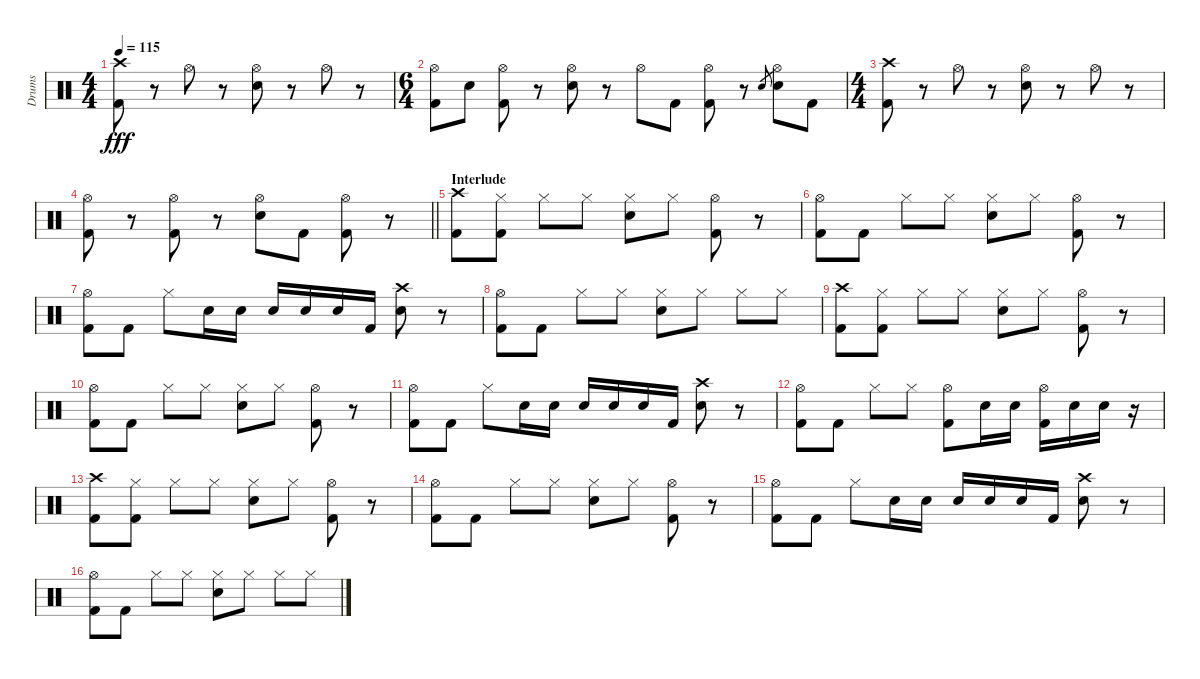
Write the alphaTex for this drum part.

\track ("Drums" "Drums") {instrument percussion}
\staff {score}
\articulation defaults
\ts (4 4)
\tempo 115
\clef neutral
\ks c
("Crash high (hit)" "Kick (hit) 2").8{dy fff} r.8 "Hi-Hat (open)".8 r.8 ("Hi-Hat (open)" "Electric Snare (hit)").8 r.8 "Hi-Hat (open)".8 r.8 |
\ts (6 4)
("Hi-Hat (open)" "Kick (hit) 2").8 "Electric Snare (hit)".8 ("Hi-Hat (open)" "Kick (hit) 2").8 r.8 ("Hi-Hat (open)" "Electric Snare (hit)").8 r.8 "Hi-Hat (open)".8 "Kick (hit) 2".8 ("Hi-Hat (open)" "Kick (hit) 2").8 r.8 "Electric Snare (hit)".8{gr} ("Hi-Hat (open)" "Electric Snare (hit)").8 "Kick (hit) 2".8 |
\ts (4 4)
("Crash high (hit)" "Kick (hit) 2").8 r.8 "Hi-Hat (open)".8 r.8 ("Hi-Hat (open)" "Electric Snare (hit)").8 r.8 "Hi-Hat (open)".8 r.8 |
\barLineRight lightlight
("Hi-Hat (open)" "Kick (hit) 2").8 r.8 ("Hi-Hat (open)" "Kick (hit) 2").8 r.8 ("Hi-Hat (open)" "Electric Snare (hit)").8 "Kick (hit) 2".8 ("Hi-Hat (open)" "Kick (hit) 2").8 r.8 |
\section ("" "Interlude")
("Crash high (hit)" "Kick (hit) 2").8 ("Hi-Hat (closed)" "Kick (hit) 2").8 "Hi-Hat (closed)".8 "Hi-Hat (closed)".8 ("Hi-Hat (closed)" "Electric Snare (hit)").8 "Hi-Hat (closed)".8 ("Hi-Hat (open)" "Kick (hit) 2").8 r.8 |
("Hi-Hat (open)" "Kick (hit) 2").8 "Kick (hit) 2".8 "Hi-Hat (closed)".8 "Hi-Hat (closed)".8 ("Hi-Hat (closed)" "Electric Snare (hit)").8 "Hi-Hat (closed)".8 ("Hi-Hat (open)" "Kick (hit) 2").8 r.8 |
("Hi-Hat (open)" "Kick (hit) 2").8 "Kick (hit) 2".8 "Hi-Hat (closed)".8 "Electric Snare (hit)".16 "Electric Snare (hit)".16 "Electric Snare (hit)".16 "Electric Snare (hit)".16 "Electric Snare (hit)".16 "Kick (hit) 2".16 ("Crash high (hit)" "Electric Snare (hit)").8 r.8 |
("Hi-Hat (open)" "Kick (hit) 2").8 "Kick (hit) 2".8 "Hi-Hat (closed)".8 "Hi-Hat (closed)".8 ("Hi-Hat (closed)" "Electric Snare (hit)").8 "Hi-Hat (closed)".8 "Hi-Hat (closed)".8 "Hi-Hat (closed)".8 |
("Crash high (hit)" "Kick (hit) 2").8 ("Hi-Hat (closed)" "Kick (hit) 2").8 "Hi-Hat (closed)".8 "Hi-Hat (closed)".8 ("Hi-Hat (closed)" "Electric Snare (hit)").8 "Hi-Hat (closed)".8 ("Hi-Hat (open)" "Kick (hit) 2").8 r.8 |
("Hi-Hat (open)" "Kick (hit) 2").8 "Kick (hit) 2".8 "Hi-Hat (closed)".8 "Hi-Hat (closed)".8 ("Hi-Hat (closed)" "Electric Snare (hit)").8 "Hi-Hat (closed)".8 ("Hi-Hat (open)" "Kick (hit) 2").8 r.8 |
("Hi-Hat (open)" "Kick (hit) 2").8 "Kick (hit) 2".8 "Hi-Hat (closed)".8 "Electric Snare (hit)".16 "Electric Snare (hit)".16 "Electric Snare (hit)".16 "Electric Snare (hit)".16 "Electric Snare (hit)".16 "Kick (hit) 2".16 ("Crash high (hit)" "Electric Snare (hit)").8 r.8 |
("Hi-Hat (open)" "Kick (hit) 2").8 "Kick (hit) 2".8 "Hi-Hat (closed)".8 "Hi-Hat (closed)".8 ("Hi-Hat (open)" "Kick (hit) 2").8 "Electric Snare (hit)".16 "Electric Snare (hit)".16 ("Hi-Hat (open)" "Kick (hit) 2").16 "Electric Snare (hit)".16 "Electric Snare (hit)".16 r.16 |
("Crash high (hit)" "Kick (hit) 2").8 ("Hi-Hat (closed)" "Kick (hit) 2").8 "Hi-Hat (closed)".8 "Hi-Hat (closed)".8 ("Hi-Hat (closed)" "Electric Snare (hit)").8 "Hi-Hat (closed)".8 ("Hi-Hat (open)" "Kick (hit) 2").8 r.8 |
("Hi-Hat (open)" "Kick (hit) 2").8 "Kick (hit) 2".8 "Hi-Hat (closed)".8 "Hi-Hat (closed)".8 ("Hi-Hat (closed)" "Electric Snare (hit)").8 "Hi-Hat (closed)".8 ("Hi-Hat (open)" "Kick (hit) 2").8 r.8 |
("Hi-Hat (open)" "Kick (hit) 2").8 "Kick (hit) 2".8 "Hi-Hat (closed)".8 "Electric Snare (hit)".16 "Electric Snare (hit)".16 "Electric Snare (hit)".16 "Electric Snare (hit)".16 "Electric Snare (hit)".16 "Kick (hit) 2".16 ("Crash high (hit)" "Electric Snare (hit)").8 r.8 |
("Hi-Hat (open)" "Kick (hit) 2").8 "Kick (hit) 2".8 "Hi-Hat (closed)".8 "Hi-Hat (closed)".8 ("Hi-Hat (closed)" "Electric Snare (hit)").8 "Hi-Hat (closed)".8 "Hi-Hat (closed)".8 "Hi-Hat (closed)".8
